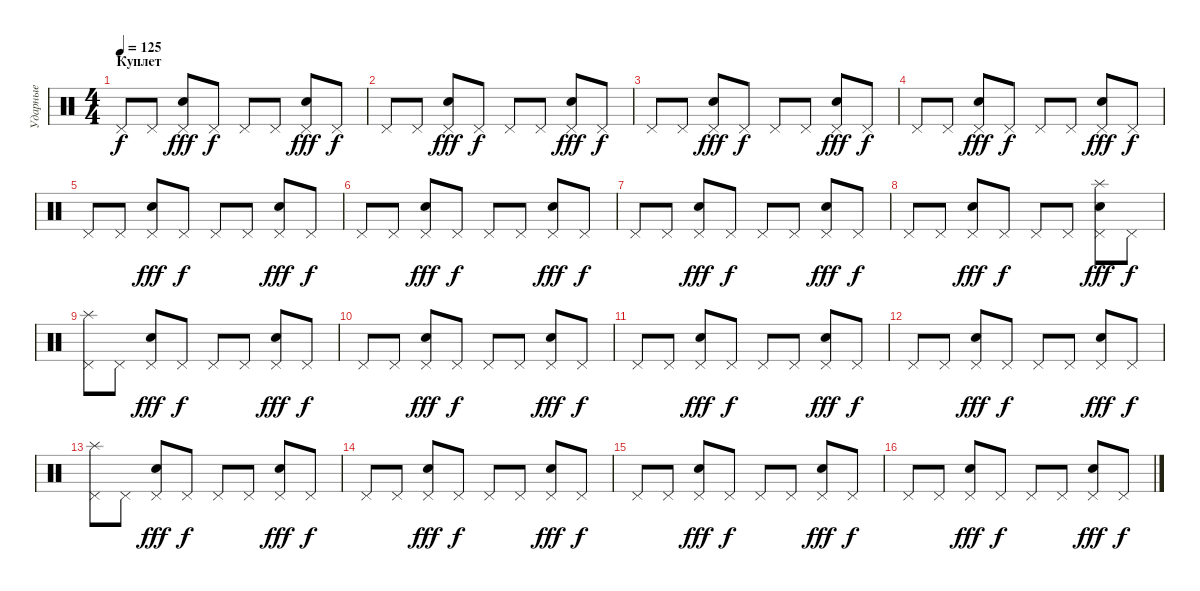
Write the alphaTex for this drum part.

\track ("Ударные" "Ударные") {instrument percussion}
\staff {score}
\articulation defaults
\ts (4 4)
\section ("" "Куплет")
\tempo 125
\clef neutral
\ks c "Pedal Hi-Hat (hit)".8{dy f volume 13} "Pedal Hi-Hat (hit)".8
("Electric Snare (hit)" "Pedal Hi-Hat (hit)").8{dy fff} "Pedal Hi-Hat (hit)".8{dy f} "Pedal Hi-Hat (hit)".8 "Pedal Hi-Hat (hit)".8 ("Electric Snare (hit)" "Pedal Hi-Hat (hit)").8{dy fff} "Pedal Hi-Hat (hit)".8{dy f} |
"Pedal Hi-Hat (hit)".8 "Pedal Hi-Hat (hit)".8 ("Electric Snare (hit)" "Pedal Hi-Hat (hit)").8{dy fff} "Pedal Hi-Hat (hit)".8{dy f} "Pedal Hi-Hat (hit)".8 "Pedal Hi-Hat (hit)".8 ("Electric Snare (hit)" "Pedal Hi-Hat (hit)").8{dy fff} "Pedal Hi-Hat (hit)".8{dy f} |
"Pedal Hi-Hat (hit)".8 "Pedal Hi-Hat (hit)".8 ("Electric Snare (hit)" "Pedal Hi-Hat (hit)").8{dy fff} "Pedal Hi-Hat (hit)".8{dy f} "Pedal Hi-Hat (hit)".8 "Pedal Hi-Hat (hit)".8 ("Electric Snare (hit)" "Pedal Hi-Hat (hit)").8{dy fff} "Pedal Hi-Hat (hit)".8{dy f} |
"Pedal Hi-Hat (hit)".8 "Pedal Hi-Hat (hit)".8 ("Electric Snare (hit)" "Pedal Hi-Hat (hit)").8{dy fff} "Pedal Hi-Hat (hit)".8{dy f} "Pedal Hi-Hat (hit)".8 "Pedal Hi-Hat (hit)".8 ("Electric Snare (hit)" "Pedal Hi-Hat (hit)").8{dy fff} "Pedal Hi-Hat (hit)".8{dy f} |
"Pedal Hi-Hat (hit)".8 "Pedal Hi-Hat (hit)".8 ("Electric Snare (hit)" "Pedal Hi-Hat (hit)").8{dy fff} "Pedal Hi-Hat (hit)".8{dy f} "Pedal Hi-Hat (hit)".8 "Pedal Hi-Hat (hit)".8 ("Electric Snare (hit)" "Pedal Hi-Hat (hit)").8{dy fff} "Pedal Hi-Hat (hit)".8{dy f} |
"Pedal Hi-Hat (hit)".8 "Pedal Hi-Hat (hit)".8 ("Electric Snare (hit)" "Pedal Hi-Hat (hit)").8{dy fff} "Pedal Hi-Hat (hit)".8{dy f} "Pedal Hi-Hat (hit)".8 "Pedal Hi-Hat (hit)".8 ("Electric Snare (hit)" "Pedal Hi-Hat (hit)").8{dy fff} "Pedal Hi-Hat (hit)".8{dy f} |
"Pedal Hi-Hat (hit)".8 "Pedal Hi-Hat (hit)".8 ("Electric Snare (hit)" "Pedal Hi-Hat (hit)").8{dy fff} "Pedal Hi-Hat (hit)".8{dy f} "Pedal Hi-Hat (hit)".8 "Pedal Hi-Hat (hit)".8 ("Electric Snare (hit)" "Pedal Hi-Hat (hit)").8{dy fff} "Pedal Hi-Hat (hit)".8{dy f} |
"Pedal Hi-Hat (hit)".8 "Pedal Hi-Hat (hit)".8 ("Electric Snare (hit)" "Pedal Hi-Hat (hit)").8{dy fff} "Pedal Hi-Hat (hit)".8{dy f} "Pedal Hi-Hat (hit)".8 "Pedal Hi-Hat (hit)".8 ("Electric Snare (hit)" "Splash (hit)" "Pedal Hi-Hat (hit)").8{dy fff} "Pedal Hi-Hat (hit)".8{dy f} |
("Splash (hit)" "Pedal Hi-Hat (hit)").8 "Pedal Hi-Hat (hit)".8 ("Electric Snare (hit)" "Pedal Hi-Hat (hit)").8{dy fff} "Pedal Hi-Hat (hit)".8{dy f} "Pedal Hi-Hat (hit)".8 "Pedal Hi-Hat (hit)".8 ("Electric Snare (hit)" "Pedal Hi-Hat (hit)").8{dy fff} "Pedal Hi-Hat (hit)".8{dy f} |
"Pedal Hi-Hat (hit)".8 "Pedal Hi-Hat (hit)".8 ("Electric Snare (hit)" "Pedal Hi-Hat (hit)").8{dy fff} "Pedal Hi-Hat (hit)".8{dy f} "Pedal Hi-Hat (hit)".8 "Pedal Hi-Hat (hit)".8 ("Electric Snare (hit)" "Pedal Hi-Hat (hit)").8{dy fff} "Pedal Hi-Hat (hit)".8{dy f} |
"Pedal Hi-Hat (hit)".8 "Pedal Hi-Hat (hit)".8 ("Electric Snare (hit)" "Pedal Hi-Hat (hit)").8{dy fff} "Pedal Hi-Hat (hit)".8{dy f} "Pedal Hi-Hat (hit)".8 "Pedal Hi-Hat (hit)".8 ("Electric Snare (hit)" "Pedal Hi-Hat (hit)").8{dy fff} "Pedal Hi-Hat (hit)".8{dy f} |
"Pedal Hi-Hat (hit)".8 "Pedal Hi-Hat (hit)".8 ("Electric Snare (hit)" "Pedal Hi-Hat (hit)").8{dy fff} "Pedal Hi-Hat (hit)".8{dy f} "Pedal Hi-Hat (hit)".8 "Pedal Hi-Hat (hit)".8 ("Electric Snare (hit)" "Pedal Hi-Hat (hit)").8{dy fff} "Pedal Hi-Hat (hit)".8{dy f} |
("Splash (hit)" "Pedal Hi-Hat (hit)").8 "Pedal Hi-Hat (hit)".8 ("Electric Snare (hit)" "Pedal Hi-Hat (hit)").8{dy fff} "Pedal Hi-Hat (hit)".8{dy f} "Pedal Hi-Hat (hit)".8 "Pedal Hi-Hat (hit)".8 ("Electric Snare (hit)" "Pedal Hi-Hat (hit)").8{dy fff} "Pedal Hi-Hat (hit)".8{dy f} |
"Pedal Hi-Hat (hit)".8 "Pedal Hi-Hat (hit)".8 ("Electric Snare (hit)" "Pedal Hi-Hat (hit)").8{dy fff} "Pedal Hi-Hat (hit)".8{dy f} "Pedal Hi-Hat (hit)".8 "Pedal Hi-Hat (hit)".8 ("Electric Snare (hit)" "Pedal Hi-Hat (hit)").8{dy fff} "Pedal Hi-Hat (hit)".8{dy f} |
"Pedal Hi-Hat (hit)".8 "Pedal Hi-Hat (hit)".8 ("Electric Snare (hit)" "Pedal Hi-Hat (hit)").8{dy fff} "Pedal Hi-Hat (hit)".8{dy f} "Pedal Hi-Hat (hit)".8 "Pedal Hi-Hat (hit)".8 ("Electric Snare (hit)" "Pedal Hi-Hat (hit)").8{dy fff} "Pedal Hi-Hat (hit)".8{dy f} |
"Pedal Hi-Hat (hit)".8 "Pedal Hi-Hat (hit)".8 ("Electric Snare (hit)" "Pedal Hi-Hat (hit)").8{dy fff} "Pedal Hi-Hat (hit)".8{dy f} "Pedal Hi-Hat (hit)".8 "Pedal Hi-Hat (hit)".8 ("Electric Snare (hit)" "Pedal Hi-Hat (hit)").8{dy fff} "Pedal Hi-Hat (hit)".8{dy f}
